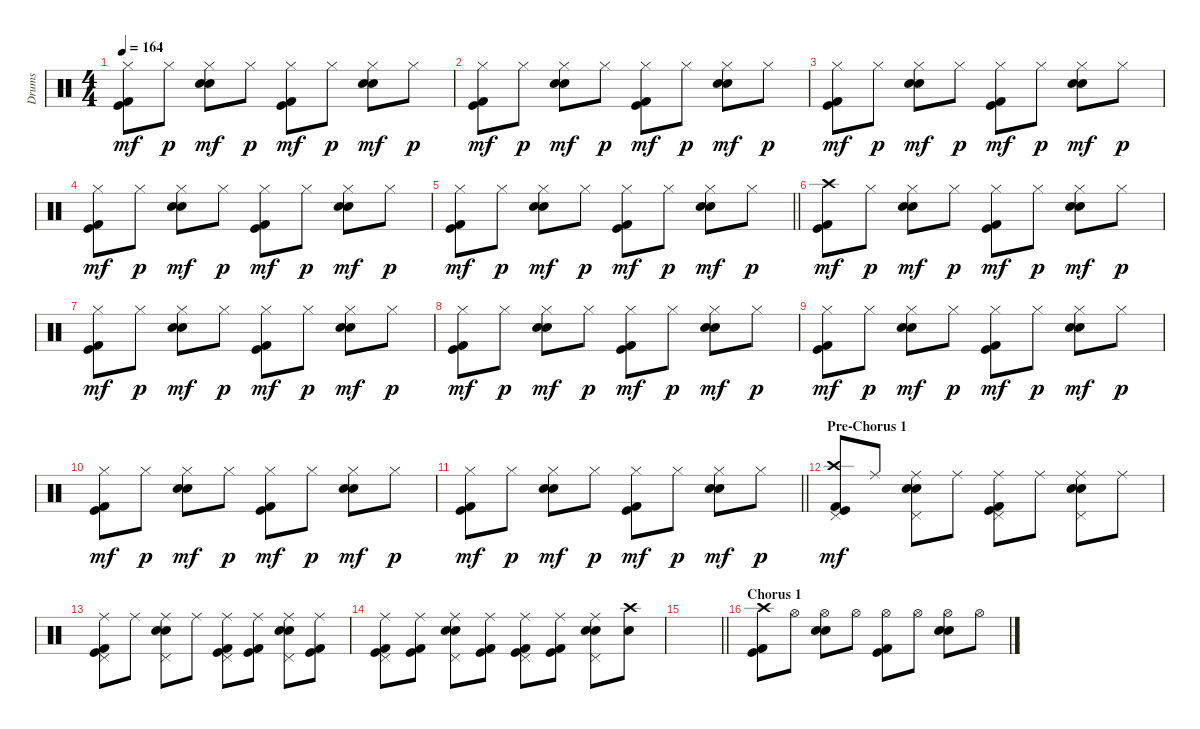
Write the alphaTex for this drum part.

\track ("Drums" "Drums") {instrument percussion}
\staff {score}
\articulation defaults
\ts (4 4)
\tempo 164
\clef neutral
\ks c
("Hi-Hat (closed)" "Kick (hit) 2" "Kick (hit)").8{dy mf} "Hi-Hat (closed)".8{dy p} ("Hi-Hat (closed)" "Snare (hit) 2" "Electric Snare (hit)").8{dy mf} "Hi-Hat (closed)".8{dy p} ("Hi-Hat (closed)" "Kick (hit) 2" "Kick (hit)").8{dy mf} "Hi-Hat (closed)".8{dy p} ("Hi-Hat (closed)" "Snare (hit) 2" "Electric Snare (hit)").8{dy mf} "Hi-Hat (closed)".8{dy p} |
("Hi-Hat (closed)" "Kick (hit) 2" "Kick (hit)").8{dy mf} "Hi-Hat (closed)".8{dy p} ("Hi-Hat (closed)" "Snare (hit) 2" "Electric Snare (hit)").8{dy mf} "Hi-Hat (closed)".8{dy p} ("Hi-Hat (closed)" "Kick (hit) 2" "Kick (hit)").8{dy mf} "Hi-Hat (closed)".8{dy p} ("Hi-Hat (closed)" "Snare (hit) 2" "Electric Snare (hit)").8{dy mf} "Hi-Hat (closed)".8{dy p} |
("Hi-Hat (closed)" "Kick (hit) 2" "Kick (hit)").8{dy mf} "Hi-Hat (closed)".8{dy p} ("Hi-Hat (closed)" "Snare (hit) 2" "Electric Snare (hit)").8{dy mf} "Hi-Hat (closed)".8{dy p} ("Hi-Hat (closed)" "Kick (hit) 2" "Kick (hit)").8{dy mf} "Hi-Hat (closed)".8{dy p} ("Hi-Hat (closed)" "Snare (hit) 2" "Electric Snare (hit)").8{dy mf} "Hi-Hat (closed)".8{dy p} |
("Hi-Hat (closed)" "Kick (hit) 2" "Kick (hit)").8{dy mf} "Hi-Hat (closed)".8{dy p} ("Hi-Hat (closed)" "Snare (hit) 2" "Electric Snare (hit)").8{dy mf} "Hi-Hat (closed)".8{dy p} ("Hi-Hat (closed)" "Kick (hit) 2" "Kick (hit)").8{dy mf} "Hi-Hat (closed)".8{dy p} ("Hi-Hat (closed)" "Snare (hit) 2" "Electric Snare (hit)").8{dy mf} "Hi-Hat (closed)".8{dy p} |
\barLineRight lightlight
("Hi-Hat (closed)" "Kick (hit) 2" "Kick (hit)").8{dy mf} "Hi-Hat (closed)".8{dy p} ("Hi-Hat (closed)" "Snare (hit) 2" "Electric Snare (hit)").8{dy mf} "Hi-Hat (closed)".8{dy p} ("Hi-Hat (closed)" "Kick (hit) 2" "Kick (hit)").8{dy mf} "Hi-Hat (closed)".8{dy p} ("Hi-Hat (closed)" "Snare (hit) 2" "Electric Snare (hit)").8{dy mf} "Hi-Hat (closed)".8{dy p} |
("Crash high (hit)" "Kick (hit) 2" "Kick (hit)").8{dy mf} "Hi-Hat (closed)".8{dy p} ("Hi-Hat (closed)" "Snare (hit) 2" "Electric Snare (hit)").8{dy mf} "Hi-Hat (closed)".8{dy p} ("Hi-Hat (closed)" "Kick (hit) 2" "Kick (hit)").8{dy mf} "Hi-Hat (closed)".8{dy p} ("Hi-Hat (closed)" "Snare (hit) 2" "Electric Snare (hit)").8{dy mf} "Hi-Hat (closed)".8{dy p} |
("Hi-Hat (closed)" "Kick (hit) 2" "Kick (hit)").8{dy mf} "Hi-Hat (closed)".8{dy p} ("Hi-Hat (closed)" "Snare (hit) 2" "Electric Snare (hit)").8{dy mf} "Hi-Hat (closed)".8{dy p} ("Hi-Hat (closed)" "Kick (hit) 2" "Kick (hit)").8{dy mf} "Hi-Hat (closed)".8{dy p} ("Hi-Hat (closed)" "Snare (hit) 2" "Electric Snare (hit)").8{dy mf} "Hi-Hat (closed)".8{dy p} |
("Hi-Hat (closed)" "Kick (hit) 2" "Kick (hit)").8{dy mf} "Hi-Hat (closed)".8{dy p} ("Hi-Hat (closed)" "Snare (hit) 2" "Electric Snare (hit)").8{dy mf} "Hi-Hat (closed)".8{dy p} ("Hi-Hat (closed)" "Kick (hit) 2" "Kick (hit)").8{dy mf} "Hi-Hat (closed)".8{dy p} ("Hi-Hat (closed)" "Snare (hit) 2" "Electric Snare (hit)").8{dy mf} "Hi-Hat (closed)".8{dy p} |
("Hi-Hat (closed)" "Kick (hit) 2" "Kick (hit)").8{dy mf} "Hi-Hat (closed)".8{dy p} ("Hi-Hat (closed)" "Snare (hit) 2" "Electric Snare (hit)").8{dy mf} "Hi-Hat (closed)".8{dy p} ("Hi-Hat (closed)" "Kick (hit) 2" "Kick (hit)").8{dy mf} "Hi-Hat (closed)".8{dy p} ("Hi-Hat (closed)" "Snare (hit) 2" "Electric Snare (hit)").8{dy mf} "Hi-Hat (closed)".8{dy p} |
("Hi-Hat (closed)" "Kick (hit) 2" "Kick (hit)").8{dy mf} "Hi-Hat (closed)".8{dy p} ("Hi-Hat (closed)" "Snare (hit) 2" "Electric Snare (hit)").8{dy mf} "Hi-Hat (closed)".8{dy p} ("Hi-Hat (closed)" "Kick (hit) 2" "Kick (hit)").8{dy mf} "Hi-Hat (closed)".8{dy p} ("Hi-Hat (closed)" "Snare (hit) 2" "Electric Snare (hit)").8{dy mf} "Hi-Hat (closed)".8{dy p} |
\barLineRight lightlight
("Hi-Hat (closed)" "Kick (hit) 2" "Kick (hit)").8{dy mf} "Hi-Hat (closed)".8{dy p} ("Hi-Hat (closed)" "Snare (hit) 2" "Electric Snare (hit)").8{dy mf} "Hi-Hat (closed)".8{dy p} ("Hi-Hat (closed)" "Kick (hit) 2" "Kick (hit)").8{dy mf} "Hi-Hat (closed)".8{dy p} ("Hi-Hat (closed)" "Snare (hit) 2" "Electric Snare (hit)").8{dy mf} "Hi-Hat (closed)".8{dy p} |
\section ("" "Pre-Chorus 1")
("Crash high (hit)" "Pedal Hi-Hat (hit)" "Kick (hit) 2" "Kick (hit)").8{dy mf} "Ride (middle)".8 ("Ride (middle)" "Pedal Hi-Hat (hit)" "Snare (hit) 2" "Electric Snare (hit)").8 "Ride (middle)".8 ("Ride (middle)" "Pedal Hi-Hat (hit)" "Kick (hit) 2" "Kick (hit)").8 "Ride (middle)".8 ("Ride (middle)" "Pedal Hi-Hat (hit)" "Snare (hit) 2" "Electric Snare (hit)").8 "Ride (middle)".8 |
("Ride (middle)" "Pedal Hi-Hat (hit)" "Kick (hit) 2" "Kick (hit)").8 "Ride (middle)".8 ("Ride (middle)" "Pedal Hi-Hat (hit)" "Snare (hit) 2" "Electric Snare (hit)").8 "Ride (middle)".8 ("Ride (middle)" "Pedal Hi-Hat (hit)" "Kick (hit) 2" "Kick (hit)").8 ("Ride (middle)" "Kick (hit) 2" "Kick (hit)").8 ("Ride (middle)" "Pedal Hi-Hat (hit)" "Snare (hit) 2" "Electric Snare (hit)").8 ("Ride (middle)" "Kick (hit) 2" "Kick (hit)").8 |
("Ride (middle)" "Pedal Hi-Hat (hit)" "Kick (hit) 2" "Kick (hit)").8 ("Ride (middle)" "Kick (hit) 2" "Kick (hit)").8 ("Ride (middle)" "Pedal Hi-Hat (hit)" "Snare (hit) 2" "Electric Snare (hit)").8 ("Ride (middle)" "Kick (hit) 2" "Kick (hit)").8 ("Ride (middle)" "Pedal Hi-Hat (hit)" "Kick (hit) 2" "Kick (hit)").8 ("Ride (middle)" "Kick (hit) 2" "Kick (hit)").8 ("Ride (middle)" "Pedal Hi-Hat (hit)" "Snare (hit) 2" "Electric Snare (hit)").8 ("Crash high (hit)" "Electric Snare (hit)").8 |
\barLineRight lightlight
|
\section ("" "Chorus 1")
("Crash high (hit)" "Kick (hit) 2" "Kick (hit)").8 "Hi-Hat (open)".8 ("Hi-Hat (open)" "Snare (hit) 2" "Electric Snare (hit)").8 "Hi-Hat (open)".8 ("Hi-Hat (open)" "Kick (hit) 2" "Kick (hit)").8 "Hi-Hat (open)".8 ("Hi-Hat (open)" "Snare (hit) 2" "Electric Snare (hit)").8 "Hi-Hat (open)".8
